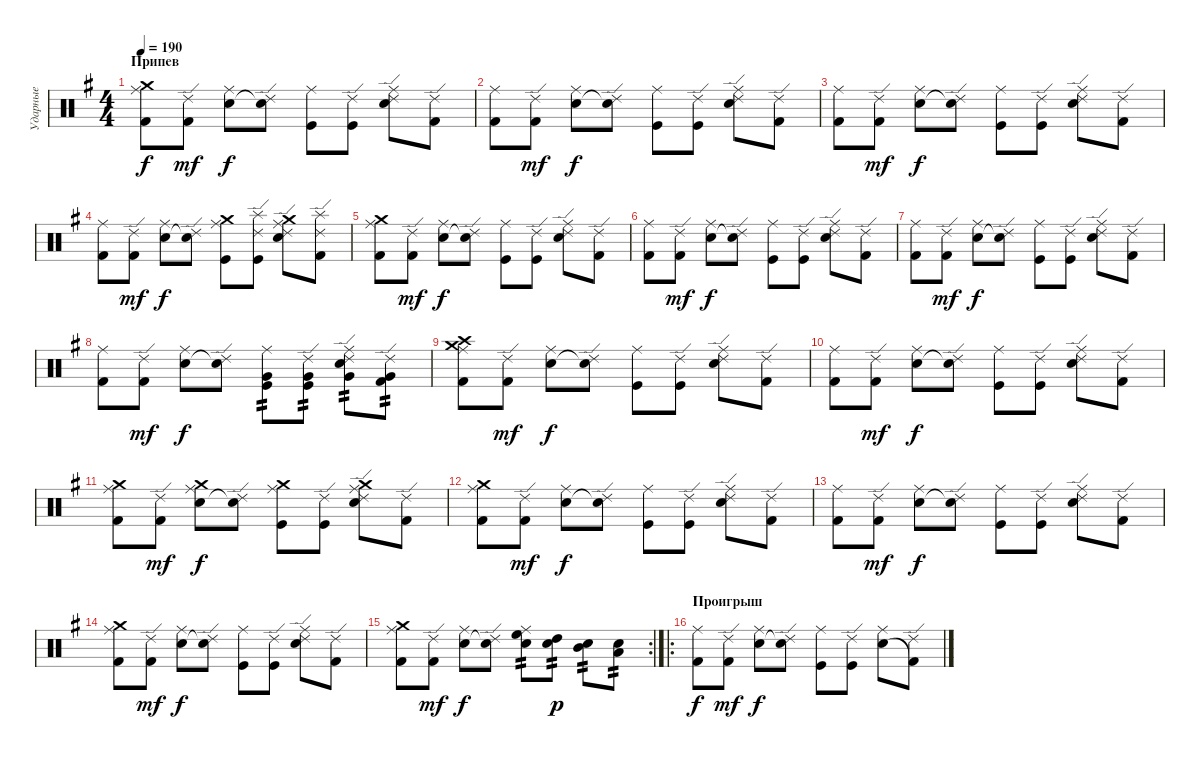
\track ("Ударные" "Ударные") {instrument percussion}
\staff {score}
\articulation defaults
\ts (4 4)
\section ("" "Припев")
\tempo 190
\clef neutral
\ks g
("Kick (hit) 2" "Ride (middle)" "Crash medium (hit)").8{dy f} ("Kick (hit) 2" "Ride (edge) 2").8{dy mf} ("Snare (hit) 2" "Ride (middle)").8{dy f} ("Snare (hit)"{t} "Ride (edge) 2").8 ("Kick (hit)" "Ride (middle)").8 ("Kick (hit)" "Ride (edge) 2").8 ("Snare (hit) 2" "Ride (edge) 2" "Ride (middle)").8 ("Kick (hit) 2" "Ride (edge) 2").8 |
("Kick (hit) 2" "Ride (middle)").8 ("Kick (hit) 2" "Ride (edge) 2").8{dy mf} ("Snare (hit) 2" "Ride (middle)").8{dy f} ("Snare (hit)"{t} "Ride (edge) 2").8 ("Kick (hit)" "Ride (middle)").8 ("Kick (hit)" "Ride (edge) 2").8 ("Snare (hit) 2" "Ride (edge) 2" "Ride (middle)").8 ("Kick (hit) 2" "Ride (edge) 2").8 |
("Kick (hit) 2" "Ride (middle)").8 ("Kick (hit) 2" "Ride (edge) 2").8{dy mf} ("Snare (hit) 2" "Ride (middle)").8{dy f} ("Snare (hit)"{t} "Ride (edge) 2").8 ("Kick (hit)" "Ride (middle)").8 ("Kick (hit)" "Ride (edge) 2").8 ("Snare (hit) 2" "Ride (edge) 2" "Ride (middle)").8 ("Kick (hit) 2" "Ride (edge) 2").8 |
("Kick (hit) 2" "Ride (middle)").8 ("Kick (hit) 2" "Ride (edge) 2").8{dy mf} ("Snare (hit) 2" "Ride (middle)").8{dy f} ("Snare (hit)"{t} "Ride (edge) 2").8 ("Kick (hit)" "Ride (middle)" "Crash medium (hit)").8 ("Kick (hit)" "Ride (edge) 2" "Splash (hit)").8 ("Snare (hit) 2" "Ride (edge) 2" "Ride (middle)" "Crash medium (hit)").8 ("Kick (hit) 2" "Ride (edge) 2" "Splash (hit)").8 |
("Kick (hit) 2" "Ride (middle)" "Crash medium (hit)").8 ("Kick (hit) 2" "Ride (edge) 2").8{dy mf} ("Snare (hit) 2" "Ride (middle)").8{dy f} ("Snare (hit)"{t} "Ride (edge) 2").8 ("Kick (hit)" "Ride (middle)").8 ("Kick (hit)" "Ride (edge) 2").8 ("Snare (hit) 2" "Ride (edge) 2" "Ride (middle)").8 ("Kick (hit) 2" "Ride (edge) 2").8 |
("Kick (hit) 2" "Ride (middle)").8 ("Kick (hit) 2" "Ride (edge) 2").8{dy mf} ("Snare (hit) 2" "Ride (middle)").8{dy f} ("Snare (hit)"{t} "Ride (edge) 2").8 ("Kick (hit)" "Ride (middle)").8 ("Kick (hit)" "Ride (edge) 2").8 ("Snare (hit) 2" "Ride (edge) 2" "Ride (middle)").8 ("Kick (hit) 2" "Ride (edge) 2").8 |
("Kick (hit) 2" "Ride (middle)").8 ("Kick (hit) 2" "Ride (edge) 2").8{dy mf} ("Snare (hit) 2" "Ride (middle)").8{dy f} ("Snare (hit)"{t} "Ride (edge) 2").8 ("Kick (hit)" "Ride (middle)").8 ("Kick (hit)" "Ride (edge) 2").8 ("Snare (hit) 2" "Ride (edge) 2" "Ride (middle)").8 ("Kick (hit) 2" "Ride (edge) 2").8 |
("Kick (hit) 2" "Ride (middle)").8 ("Kick (hit) 2" "Ride (edge) 2").8{dy mf} ("Snare (hit) 2" "Ride (middle)").8{dy f} ("Snare (hit)"{t} "Ride (edge) 2").8 ("Kick (hit)" "Ride (middle)" "Very Low Tom (hit)").8{tp 2} ("Kick (hit)" "Ride (edge) 2" "Very Low Tom (hit)").8{tp 2} ("Snare (hit) 2" "Ride (edge) 2" "Ride (middle)" "Very Low Tom (hit)").8{tp 2} ("Kick (hit) 2" "Ride (edge) 2" "Very Low Tom (hit)").8{tp 2} |
("Kick (hit) 2" "Crash medium (hit)" "Ride (middle)" "Crash high (hit)").8 ("Kick (hit) 2" "Ride (edge) 2").8{dy mf} ("Snare (hit) 2" "Ride (middle)").8{dy f} ("Snare (hit)"{t} "Ride (edge) 2").8 ("Kick (hit)" "Ride (middle)").8 ("Kick (hit)" "Ride (edge) 2").8 ("Snare (hit) 2" "Ride (edge) 2" "Ride (middle)").8 ("Kick (hit) 2" "Ride (edge) 2").8 |
("Kick (hit) 2" "Ride (middle)").8 ("Kick (hit) 2" "Ride (edge) 2").8{dy mf} ("Snare (hit) 2" "Ride (middle)").8{dy f} ("Snare (hit)"{t} "Ride (edge) 2").8 ("Kick (hit)" "Ride (middle)").8 ("Kick (hit)" "Ride (edge) 2").8 ("Snare (hit) 2" "Ride (edge) 2" "Ride (middle)").8 ("Kick (hit) 2" "Ride (edge) 2").8 |
("Kick (hit) 2" "Ride (middle)" "Crash medium (hit)").8 ("Kick (hit) 2" "Ride (edge) 2").8{dy mf} ("Snare (hit) 2" "Ride (middle)" "Crash medium (hit)").8{dy f} ("Snare (hit)"{t} "Ride (edge) 2").8 ("Kick (hit)" "Ride (middle)" "Crash medium (hit)").8 ("Kick (hit)" "Ride (edge) 2").8 ("Snare (hit) 2" "Ride (edge) 2" "Ride (middle)" "Crash medium (hit)").8 ("Kick (hit) 2" "Ride (edge) 2").8 |
("Kick (hit) 2" "Ride (middle)" "Crash medium (hit)").8 ("Kick (hit) 2" "Ride (edge) 2").8{dy mf} ("Snare (hit) 2" "Ride (middle)").8{dy f} ("Snare (hit)"{t} "Ride (edge) 2").8 ("Kick (hit)" "Ride (middle)").8 ("Kick (hit)" "Ride (edge) 2").8 ("Snare (hit) 2" "Ride (edge) 2" "Ride (middle)").8 ("Kick (hit) 2" "Ride (edge) 2").8 |
("Kick (hit) 2" "Ride (middle)").8 ("Kick (hit) 2" "Ride (edge) 2").8{dy mf} ("Snare (hit) 2" "Ride (middle)").8{dy f} ("Snare (hit)"{t} "Ride (edge) 2").8 ("Kick (hit)" "Ride (middle)").8 ("Kick (hit)" "Ride (edge) 2").8 ("Snare (hit) 2" "Ride (edge) 2" "Ride (middle)").8 ("Kick (hit) 2" "Ride (edge) 2").8 |
("Kick (hit) 2" "Ride (middle)" "Crash medium (hit)").8 ("Kick (hit) 2" "Ride (edge) 2").8{dy mf} ("Snare (hit) 2" "Ride (middle)").8{dy f} ("Snare (hit)"{t} "Ride (edge) 2").8 ("Kick (hit)" "Ride (middle)").8 ("Kick (hit)" "Ride (edge) 2").8 ("Snare (hit) 2" "Ride (edge) 2" "Ride (middle)").8 ("Kick (hit) 2" "Ride (edge) 2").8 |
\rc 2
("Kick (hit) 2" "Ride (middle)" "Crash medium (hit)").8 ("Kick (hit) 2" "Ride (edge) 2").8{dy mf} ("Snare (hit) 2" "Ride (middle)").8{dy f} ("Snare (hit)"{t} "Ride (edge) 2").8 ("Snare (hit) 2" "Ride (middle)" "High Floor Tom (hit)").8{tp 2} ("Snare (hit) 2" "High Tom (hit)").8{tp 2 dy p} ("Snare (hit) 2" "Mid Tom (hit)").8{tp 2} ("Snare (hit) 2" "Low Tom (hit)").8{tp 2} |
\ro
\section ("" "Проигрыш")
("Kick (hit) 2" "Ride (middle)").8{dy f} ("Kick (hit) 2" "Ride (edge) 2").8{dy mf} ("Snare (hit) 2" "Ride (middle)").8{dy f} ("Snare (hit)"{t} "Ride (edge) 2").8 ("Kick (hit)" "Ride (middle)").8 ("Kick (hit)" "Ride (edge) 2").8 ("Snare (hit) 2" "Ride (middle)").8 ("Kick (hit) 2"{t} "Ride (edge) 2").8
